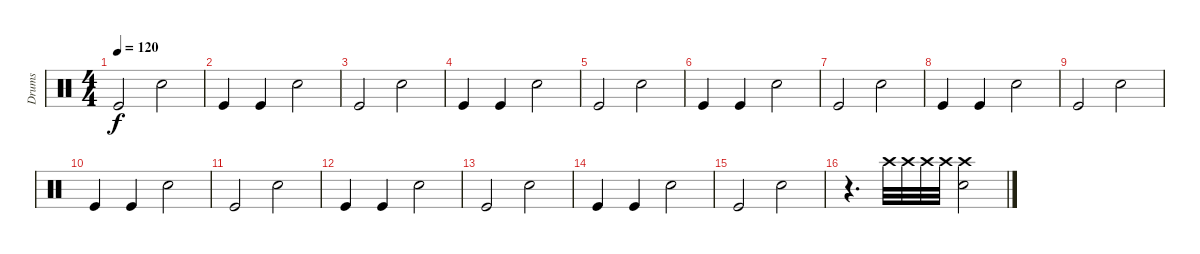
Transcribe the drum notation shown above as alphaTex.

\track ("Drums" "Drums") {instrument percussion}
\staff {score}
\articulation defaults
\ts (4 4)
\tempo 120
\clef neutral
\ks c "Kick (hit)".2{dy f} "Snare (hit) 2".2
|
"Kick (hit)".4 "Kick (hit)".4 "Snare (hit) 2".2 |
"Kick (hit)".2 "Snare (hit) 2".2 |
"Kick (hit)".4 "Kick (hit)".4 "Snare (hit) 2".2 |
"Kick (hit)".2 "Snare (hit) 2".2 |
"Kick (hit)".4 "Kick (hit)".4 "Snare (hit) 2".2 |
"Kick (hit)".2 "Snare (hit) 2".2 |
"Kick (hit)".4 "Kick (hit)".4 "Snare (hit) 2".2 |
"Kick (hit)".2 "Snare (hit) 2".2 |
"Kick (hit)".4 "Kick (hit)".4 "Snare (hit) 2".2 |
"Kick (hit)".2 "Snare (hit) 2".2 |
"Kick (hit)".4 "Kick (hit)".4 "Snare (hit) 2".2 |
"Kick (hit)".2 "Snare (hit) 2".2 |
"Kick (hit)".4 "Kick (hit)".4 "Snare (hit) 2".2 |
"Kick (hit)".2 "Snare (hit) 2".2 |
r.4{d} "Crash high (hit)".32 "Crash high (hit)".32 "Crash high (hit)".32 "Crash high (hit)".32 ("Crash high (hit)" "Electric Snare (hit)").2
